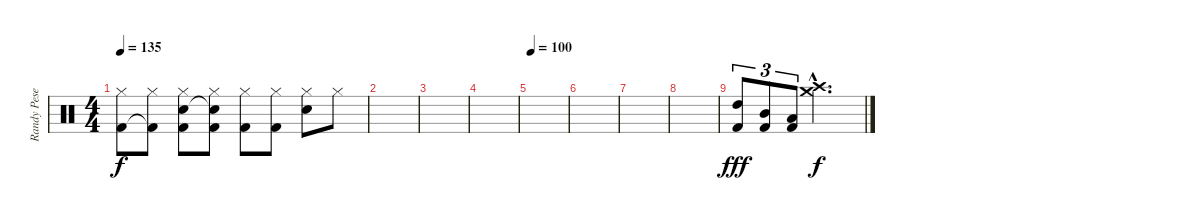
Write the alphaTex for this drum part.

\track ("Randy Pesek" "Randy Pese") {instrument percussion}
\staff {score}
\articulation defaults
\ts (4 4)
\tempo 135
\clef neutral
\ks c
("Hi-Hat (closed)" "Kick (hit) 2").8{dy f} ("Hi-Hat (closed)" "Kick (hit) 2"{t}).8 ("Hi-Hat (closed)" "Snare (hit) 2" "Kick (hit) 2").8 ("Hi-Hat (closed)" "Snare (hit)"{t} "Kick (hit) 2").8 ("Hi-Hat (closed)" "Kick (hit) 2").8 ("Hi-Hat (closed)" "Kick (hit) 2").8 ("Hi-Hat (closed)" "Snare (hit) 2").8 "Hi-Hat (closed)".8 |
|
|
|
\tempo 100
|
|
|
|
("High Tom (hit)" "Kick (hit) 2").8{tu (3 2) dy fff} ("Mid Tom (hit)" "Kick (hit) 2").8{tu (3 2)} ("Low Tom (hit)" "Kick (hit) 2").8{tu (3 2)} ("Crash medium (hit)"{hac} "Crash high (hit)"{hac}).2{d dy f}
